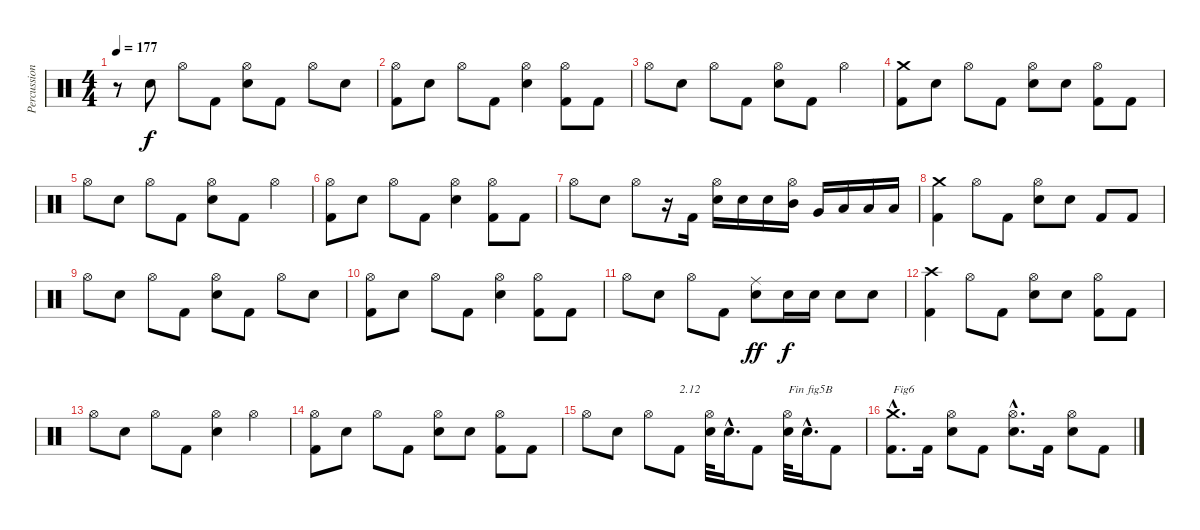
\track ("Percussions" "Percussion") {instrument percussion}
\staff {score}
\articulation defaults
\ts (4 4)
\tempo 177
\clef neutral
\ks c
r.8{dy f} "Electric Snare (hit)".8 "Hi-Hat (open)".8 "Kick (hit) 2".8 ("Electric Snare (hit)" "Hi-Hat (open)").8 "Kick (hit) 2".8 "Hi-Hat (open)".8 "Electric Snare (hit)".8 |
("Kick (hit) 2" "Hi-Hat (open)").8 "Electric Snare (hit)".8 "Hi-Hat (open)".8 "Kick (hit) 2".8 ("Electric Snare (hit)" "Hi-Hat (open)").4 ("Kick (hit) 2" "Hi-Hat (open)").8 "Kick (hit) 2".8 |
"Hi-Hat (open)".8 "Electric Snare (hit)".8 "Hi-Hat (open)".8 "Kick (hit) 2".8 ("Electric Snare (hit)" "Hi-Hat (open)").8 "Kick (hit) 2".8 "Hi-Hat (open)".4 |
("Kick (hit) 2" "Crash medium (hit)").8 "Electric Snare (hit)".8 "Hi-Hat (open)".8 "Kick (hit) 2".8 ("Electric Snare (hit)" "Hi-Hat (open)").8 "Electric Snare (hit)".8 ("Kick (hit) 2" "Hi-Hat (open)").8 "Kick (hit) 2".8 |
"Hi-Hat (open)".8 "Electric Snare (hit)".8 "Hi-Hat (open)".8 "Kick (hit) 2".8 ("Electric Snare (hit)" "Hi-Hat (open)").8 "Kick (hit) 2".8 "Hi-Hat (open)".4 |
("Kick (hit) 2" "Hi-Hat (open)").8 "Electric Snare (hit)".8 "Hi-Hat (open)".8 "Kick (hit) 2".8 ("Electric Snare (hit)" "Hi-Hat (open)").4 ("Kick (hit) 2" "Hi-Hat (open)").8 "Kick (hit) 2".8 |
"Hi-Hat (open)".8 "Electric Snare (hit)".8 "Hi-Hat (open)".8 r.16 "Kick (hit) 2".16 ("Electric Snare (hit)" "Hi-Hat (open)").16 "Electric Snare (hit)".16 "Electric Snare (hit)".16 ("Mid Tom (hit)" "Hi-Hat (open)").16 "Very Low Tom (hit)".16 "Low Tom (hit)".16 "Low Floor Tom (hit)".16 "Low Floor Tom (hit)".16 |
("Kick (hit) 2" "Crash medium (hit)").4 "Hi-Hat (open)".8 "Kick (hit) 2".8 ("Electric Snare (hit)" "Hi-Hat (open)").8 "Electric Snare (hit)".8 "Kick (hit) 2".8 "Kick (hit) 2".8 |
"Hi-Hat (open)".8 "Electric Snare (hit)".8 "Hi-Hat (open)".8 "Kick (hit) 2".8 ("Electric Snare (hit)" "Hi-Hat (open)").8 "Kick (hit) 2".8 "Hi-Hat (open)".8 "Electric Snare (hit)".8 |
("Kick (hit) 2" "Hi-Hat (open)").8 "Electric Snare (hit)".8 "Hi-Hat (open)".8 "Kick (hit) 2".8 ("Electric Snare (hit)" "Hi-Hat (open)").4 ("Kick (hit) 2" "Hi-Hat (open)").8 "Kick (hit) 2".8 |
"Hi-Hat (open)".8 "Electric Snare (hit)".8 "Hi-Hat (open)".8 "Kick (hit) 2".8 ("Electric Snare (hit)" "Ride (middle)").8{dy ff} "Electric Snare (hit)".16{dy f} "Electric Snare (hit)".16 "Electric Snare (hit)".8 "Electric Snare (hit)".8 |
("Kick (hit) 2" "Crash high (hit)").4 "Hi-Hat (open)".8 "Kick (hit) 2".8 ("Electric Snare (hit)" "Hi-Hat (open)").8 "Electric Snare (hit)".8 ("Kick (hit) 2" "Hi-Hat (open)").8 "Kick (hit) 2".8 |
"Hi-Hat (open)".8 "Electric Snare (hit)".8 "Hi-Hat (open)".8 "Kick (hit) 2".8 ("Electric Snare (hit)" "Hi-Hat (open)").4 "Hi-Hat (open)".4 |
("Kick (hit) 2" "Hi-Hat (open)").8 "Electric Snare (hit)".8 "Hi-Hat (open)".8 "Kick (hit) 2".8 ("Electric Snare (hit)" "Hi-Hat (open)").8 "Electric Snare (hit)".8 ("Kick (hit) 2" "Hi-Hat (open)").8 "Kick (hit) 2".8 |
"Hi-Hat (open)".8 "Electric Snare (hit)".8 "Hi-Hat (open)".8 "Kick (hit) 2".8{txt "2.12"} ("Electric Snare (hit)" "Hi-Hat (open)").32 "Electric Snare (hit)"{hac}.16{d} "Kick (hit) 2".8 ("Electric Snare (hit)" "Hi-Hat (open)").32{txt "Fin fig5B"} "Electric Snare (hit)"{hac}.16{d} "Kick (hit) 2".8 |
("Kick (hit) 2"{hac} "Crash medium (hit)"{hac}).8{d txt "Fig6"} "Kick (hit) 2".16 ("Electric Snare (hit)" "Hi-Hat (open)").8 "Kick (hit) 2".8 ("Electric Snare (hit)"{hac} "Hi-Hat (open)"{hac}).8{d} "Kick (hit) 2".16 ("Electric Snare (hit)" "Hi-Hat (open)").8 "Kick (hit) 2".8
